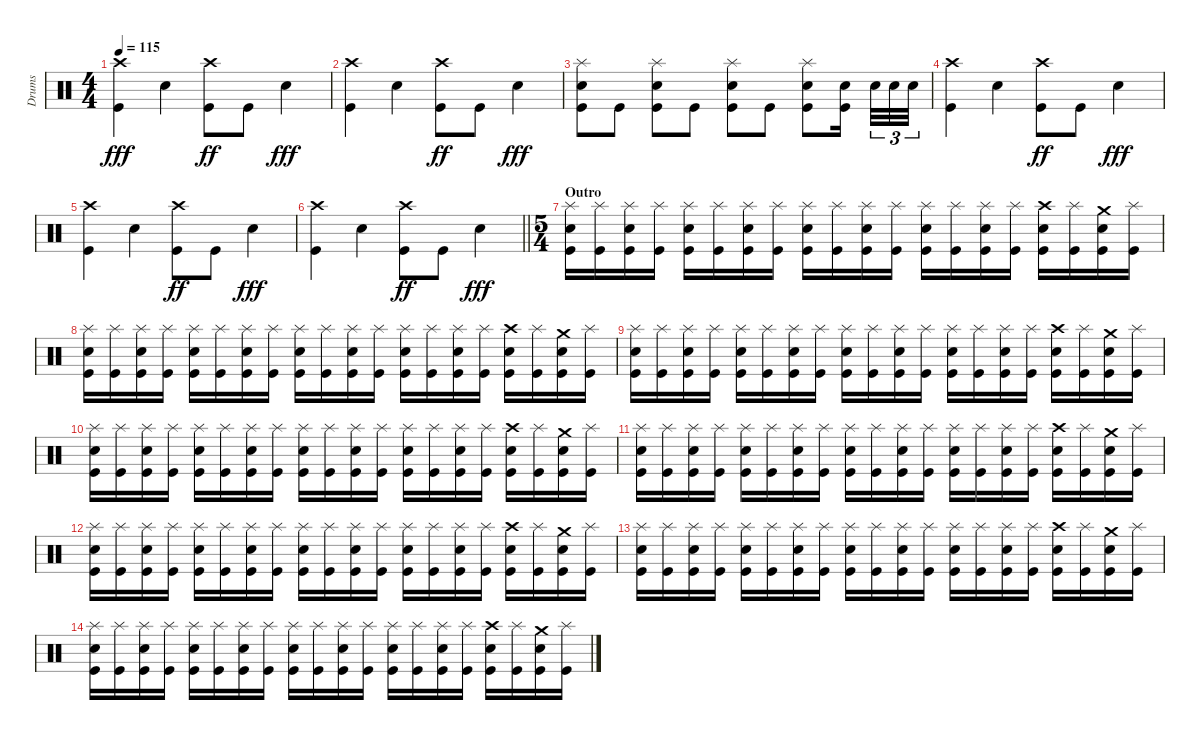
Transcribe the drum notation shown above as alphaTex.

\track ("Drums" "Drums") {instrument percussion}
\staff {score}
\articulation defaults
\ts (4 4)
\tempo 115
\clef neutral
\ks c
("Crash high (hit)" "Kick (hit)").4{dy fff} "Electric Snare (hit)".4 ("Crash high (hit)" "Kick (hit)").8{dy ff} "Kick (hit)".8 "Electric Snare (hit)".4{dy fff} |
("Crash high (hit)" "Kick (hit)").4 "Electric Snare (hit)".4 ("Crash high (hit)" "Kick (hit)").8{dy ff} "Kick (hit)".8 "Electric Snare (hit)".4{dy fff} |
("Splash (hit)" "Electric Snare (hit)" "Kick (hit)").8 "Kick (hit)".8 ("Splash (hit)" "Electric Snare (hit)" "Kick (hit)").8 "Kick (hit)".8 ("Splash (hit)" "Electric Snare (hit)" "Kick (hit)").8 "Kick (hit)".8 ("Splash (hit)" "Electric Snare (hit)" "Kick (hit)").8 ("Electric Snare (hit)" "Kick (hit)").16{beam splitsecondary} "Electric Snare (hit)".32{tu (3 2)} "Electric Snare (hit)".32{tu (3 2)} "Electric Snare (hit)".32{tu (3 2)} |
("Crash high (hit)" "Kick (hit)").4 "Electric Snare (hit)".4 ("Crash high (hit)" "Kick (hit)").8{dy ff} "Kick (hit)".8 "Electric Snare (hit)".4{dy fff} |
("Crash high (hit)" "Kick (hit)").4 "Electric Snare (hit)".4 ("Crash high (hit)" "Kick (hit)").8{dy ff} "Kick (hit)".8 "Electric Snare (hit)".4{dy fff} |
\barLineRight lightlight
("Crash high (hit)" "Kick (hit)").4 "Electric Snare (hit)".4 ("Crash high (hit)" "Kick (hit)").8{dy ff} "Kick (hit)".8 "Electric Snare (hit)".4{dy fff} |
\ts (5 4)
\section ("" "Outro")
("Splash (hit)" "Electric Snare (hit)" "Kick (hit)").16 ("Splash (hit)" "Kick (hit)").16 ("Splash (hit)" "Electric Snare (hit)" "Kick (hit)").16 ("Splash (hit)" "Kick (hit)").16 ("Splash (hit)" "Electric Snare (hit)" "Kick (hit)").16 ("Splash (hit)" "Kick (hit)").16 ("Splash (hit)" "Electric Snare (hit)" "Kick (hit)").16 ("Splash (hit)" "Kick (hit)").16 ("Splash (hit)" "Electric Snare (hit)" "Kick (hit)").16 ("Splash (hit)" "Kick (hit)").16 ("Splash (hit)" "Electric Snare (hit)" "Kick (hit)").16 ("Splash (hit)" "Kick (hit)").16 ("Splash (hit)" "Electric Snare (hit)" "Kick (hit)").16 ("Splash (hit)" "Kick (hit)").16 ("Splash (hit)" "Electric Snare (hit)" "Kick (hit)").16 ("Splash (hit)" "Kick (hit)").16 ("Crash high (hit)" "Electric Snare (hit)" "Kick (hit)").16 ("Splash (hit)" "Kick (hit)").16 ("Crash medium (hit)" "Electric Snare (hit)" "Kick (hit)").16 ("Splash (hit)" "Kick (hit)").16 |
("Splash (hit)" "Electric Snare (hit)" "Kick (hit)").16 ("Splash (hit)" "Kick (hit)").16 ("Splash (hit)" "Electric Snare (hit)" "Kick (hit)").16 ("Splash (hit)" "Kick (hit)").16 ("Splash (hit)" "Electric Snare (hit)" "Kick (hit)").16 ("Splash (hit)" "Kick (hit)").16 ("Splash (hit)" "Electric Snare (hit)" "Kick (hit)").16 ("Splash (hit)" "Kick (hit)").16 ("Splash (hit)" "Electric Snare (hit)" "Kick (hit)").16 ("Splash (hit)" "Kick (hit)").16 ("Splash (hit)" "Electric Snare (hit)" "Kick (hit)").16 ("Splash (hit)" "Kick (hit)").16 ("Splash (hit)" "Electric Snare (hit)" "Kick (hit)").16 ("Splash (hit)" "Kick (hit)").16 ("Splash (hit)" "Electric Snare (hit)" "Kick (hit)").16 ("Splash (hit)" "Kick (hit)").16 ("Crash high (hit)" "Electric Snare (hit)" "Kick (hit)").16 ("Splash (hit)" "Kick (hit)").16 ("Crash medium (hit)" "Electric Snare (hit)" "Kick (hit)").16 ("Splash (hit)" "Kick (hit)").16 |
("Splash (hit)" "Electric Snare (hit)" "Kick (hit)").16 ("Splash (hit)" "Kick (hit)").16 ("Splash (hit)" "Electric Snare (hit)" "Kick (hit)").16 ("Splash (hit)" "Kick (hit)").16 ("Splash (hit)" "Electric Snare (hit)" "Kick (hit)").16 ("Splash (hit)" "Kick (hit)").16 ("Splash (hit)" "Electric Snare (hit)" "Kick (hit)").16 ("Splash (hit)" "Kick (hit)").16 ("Splash (hit)" "Electric Snare (hit)" "Kick (hit)").16 ("Splash (hit)" "Kick (hit)").16 ("Splash (hit)" "Electric Snare (hit)" "Kick (hit)").16 ("Splash (hit)" "Kick (hit)").16 ("Splash (hit)" "Electric Snare (hit)" "Kick (hit)").16 ("Splash (hit)" "Kick (hit)").16 ("Splash (hit)" "Electric Snare (hit)" "Kick (hit)").16 ("Splash (hit)" "Kick (hit)").16 ("Crash high (hit)" "Electric Snare (hit)" "Kick (hit)").16 ("Splash (hit)" "Kick (hit)").16 ("Crash medium (hit)" "Electric Snare (hit)" "Kick (hit)").16 ("Splash (hit)" "Kick (hit)").16 |
("Splash (hit)" "Electric Snare (hit)" "Kick (hit)").16 ("Splash (hit)" "Kick (hit)").16 ("Splash (hit)" "Electric Snare (hit)" "Kick (hit)").16 ("Splash (hit)" "Kick (hit)").16 ("Splash (hit)" "Electric Snare (hit)" "Kick (hit)").16 ("Splash (hit)" "Kick (hit)").16 ("Splash (hit)" "Electric Snare (hit)" "Kick (hit)").16 ("Splash (hit)" "Kick (hit)").16 ("Splash (hit)" "Electric Snare (hit)" "Kick (hit)").16 ("Splash (hit)" "Kick (hit)").16 ("Splash (hit)" "Electric Snare (hit)" "Kick (hit)").16 ("Splash (hit)" "Kick (hit)").16 ("Splash (hit)" "Electric Snare (hit)" "Kick (hit)").16 ("Splash (hit)" "Kick (hit)").16 ("Splash (hit)" "Electric Snare (hit)" "Kick (hit)").16 ("Splash (hit)" "Kick (hit)").16 ("Crash high (hit)" "Electric Snare (hit)" "Kick (hit)").16 ("Splash (hit)" "Kick (hit)").16 ("Crash medium (hit)" "Electric Snare (hit)" "Kick (hit)").16 ("Splash (hit)" "Kick (hit)").16 |
("Splash (hit)" "Electric Snare (hit)" "Kick (hit)").16 ("Splash (hit)" "Kick (hit)").16 ("Splash (hit)" "Electric Snare (hit)" "Kick (hit)").16 ("Splash (hit)" "Kick (hit)").16 ("Splash (hit)" "Electric Snare (hit)" "Kick (hit)").16 ("Splash (hit)" "Kick (hit)").16 ("Splash (hit)" "Electric Snare (hit)" "Kick (hit)").16 ("Splash (hit)" "Kick (hit)").16 ("Splash (hit)" "Electric Snare (hit)" "Kick (hit)").16 ("Splash (hit)" "Kick (hit)").16 ("Splash (hit)" "Electric Snare (hit)" "Kick (hit)").16 ("Splash (hit)" "Kick (hit)").16 ("Splash (hit)" "Electric Snare (hit)" "Kick (hit)").16 ("Splash (hit)" "Kick (hit)").16 ("Splash (hit)" "Electric Snare (hit)" "Kick (hit)").16 ("Splash (hit)" "Kick (hit)").16 ("Crash high (hit)" "Electric Snare (hit)" "Kick (hit)").16 ("Splash (hit)" "Kick (hit)").16 ("Crash medium (hit)" "Electric Snare (hit)" "Kick (hit)").16 ("Splash (hit)" "Kick (hit)").16 |
("Splash (hit)" "Electric Snare (hit)" "Kick (hit)").16 ("Splash (hit)" "Kick (hit)").16 ("Splash (hit)" "Electric Snare (hit)" "Kick (hit)").16 ("Splash (hit)" "Kick (hit)").16 ("Splash (hit)" "Electric Snare (hit)" "Kick (hit)").16 ("Splash (hit)" "Kick (hit)").16 ("Splash (hit)" "Electric Snare (hit)" "Kick (hit)").16 ("Splash (hit)" "Kick (hit)").16 ("Splash (hit)" "Electric Snare (hit)" "Kick (hit)").16 ("Splash (hit)" "Kick (hit)").16 ("Splash (hit)" "Electric Snare (hit)" "Kick (hit)").16 ("Splash (hit)" "Kick (hit)").16 ("Splash (hit)" "Electric Snare (hit)" "Kick (hit)").16 ("Splash (hit)" "Kick (hit)").16 ("Splash (hit)" "Electric Snare (hit)" "Kick (hit)").16 ("Splash (hit)" "Kick (hit)").16 ("Crash high (hit)" "Electric Snare (hit)" "Kick (hit)").16 ("Splash (hit)" "Kick (hit)").16 ("Crash medium (hit)" "Electric Snare (hit)" "Kick (hit)").16 ("Splash (hit)" "Kick (hit)").16 |
("Splash (hit)" "Electric Snare (hit)" "Kick (hit)").16 ("Splash (hit)" "Kick (hit)").16 ("Splash (hit)" "Electric Snare (hit)" "Kick (hit)").16 ("Splash (hit)" "Kick (hit)").16 ("Splash (hit)" "Electric Snare (hit)" "Kick (hit)").16 ("Splash (hit)" "Kick (hit)").16 ("Splash (hit)" "Electric Snare (hit)" "Kick (hit)").16 ("Splash (hit)" "Kick (hit)").16 ("Splash (hit)" "Electric Snare (hit)" "Kick (hit)").16 ("Splash (hit)" "Kick (hit)").16 ("Splash (hit)" "Electric Snare (hit)" "Kick (hit)").16 ("Splash (hit)" "Kick (hit)").16 ("Splash (hit)" "Electric Snare (hit)" "Kick (hit)").16 ("Splash (hit)" "Kick (hit)").16 ("Splash (hit)" "Electric Snare (hit)" "Kick (hit)").16 ("Splash (hit)" "Kick (hit)").16 ("Crash high (hit)" "Electric Snare (hit)" "Kick (hit)").16 ("Splash (hit)" "Kick (hit)").16 ("Crash medium (hit)" "Electric Snare (hit)" "Kick (hit)").16 ("Splash (hit)" "Kick (hit)").16 |
("Splash (hit)" "Electric Snare (hit)" "Kick (hit)").16 ("Splash (hit)" "Kick (hit)").16 ("Splash (hit)" "Electric Snare (hit)" "Kick (hit)").16 ("Splash (hit)" "Kick (hit)").16 ("Splash (hit)" "Electric Snare (hit)" "Kick (hit)").16 ("Splash (hit)" "Kick (hit)").16 ("Splash (hit)" "Electric Snare (hit)" "Kick (hit)").16 ("Splash (hit)" "Kick (hit)").16 ("Splash (hit)" "Electric Snare (hit)" "Kick (hit)").16 ("Splash (hit)" "Kick (hit)").16 ("Splash (hit)" "Electric Snare (hit)" "Kick (hit)").16 ("Splash (hit)" "Kick (hit)").16 ("Splash (hit)" "Electric Snare (hit)" "Kick (hit)").16 ("Splash (hit)" "Kick (hit)").16 ("Splash (hit)" "Electric Snare (hit)" "Kick (hit)").16 ("Splash (hit)" "Kick (hit)").16 ("Crash high (hit)" "Electric Snare (hit)" "Kick (hit)").16 ("Splash (hit)" "Kick (hit)").16 ("Crash medium (hit)" "Electric Snare (hit)" "Kick (hit)").16 ("Splash (hit)" "Kick (hit)").16
